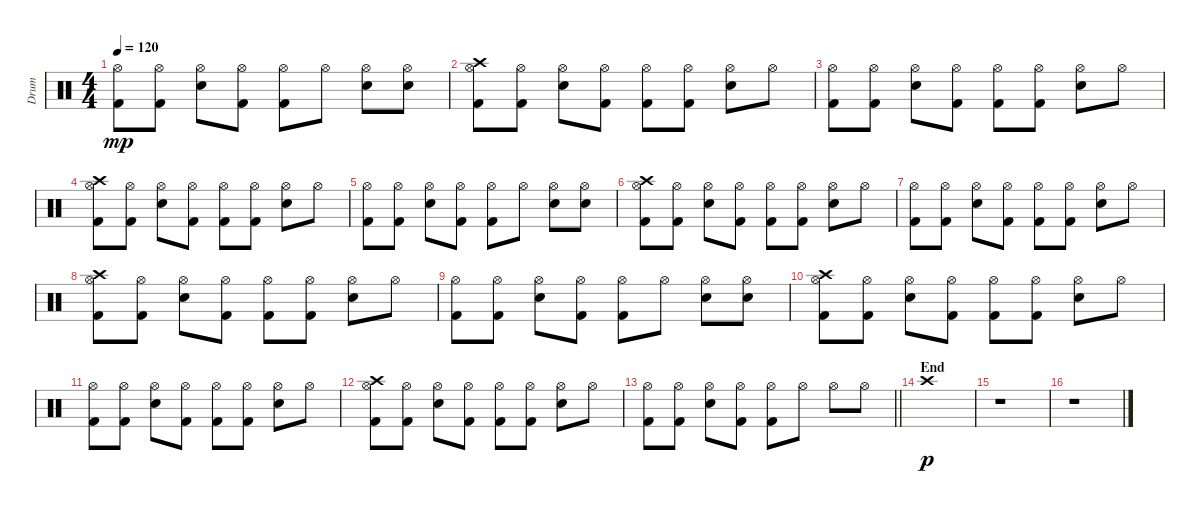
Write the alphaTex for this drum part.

\track ("Drum" "Drum") {instrument percussion}
\staff {score}
\articulation defaults
\ts (4 4)
\tempo 120
\clef neutral
\ks c
("Hi-Hat (open)" "Kick (hit) 2").8{dy mp} ("Hi-Hat (open)" "Kick (hit) 2").8 ("Hi-Hat (open)" "Snare (hit) 2").8 ("Hi-Hat (open)" "Kick (hit) 2").8 ("Hi-Hat (open)" "Kick (hit) 2").8 "Hi-Hat (open)".8 ("Hi-Hat (open)" "Snare (hit) 2").8 ("Hi-Hat (open)" "Snare (hit) 2").8 |
("Hi-Hat (open)" "Crash high (hit)" "Kick (hit) 2").8 ("Hi-Hat (open)" "Kick (hit) 2").8 ("Hi-Hat (open)" "Snare (hit) 2").8 ("Hi-Hat (open)" "Kick (hit) 2").8 ("Hi-Hat (open)" "Kick (hit) 2").8 ("Hi-Hat (open)" "Kick (hit) 2").8 ("Hi-Hat (open)" "Snare (hit) 2").8 "Hi-Hat (open)".8 |
("Hi-Hat (open)" "Kick (hit) 2").8 ("Hi-Hat (open)" "Kick (hit) 2").8 ("Hi-Hat (open)" "Snare (hit) 2").8 ("Hi-Hat (open)" "Kick (hit) 2").8 ("Hi-Hat (open)" "Kick (hit) 2").8 ("Hi-Hat (open)" "Kick (hit) 2").8 ("Hi-Hat (open)" "Snare (hit) 2").8 "Hi-Hat (open)".8 |
("Hi-Hat (open)" "Crash high (hit)" "Kick (hit) 2").8 ("Hi-Hat (open)" "Kick (hit) 2").8 ("Hi-Hat (open)" "Snare (hit) 2").8 ("Hi-Hat (open)" "Kick (hit) 2").8 ("Hi-Hat (open)" "Kick (hit) 2").8 ("Hi-Hat (open)" "Kick (hit) 2").8 ("Hi-Hat (open)" "Snare (hit) 2").8 "Hi-Hat (open)".8 |
("Hi-Hat (open)" "Kick (hit) 2").8 ("Hi-Hat (open)" "Kick (hit) 2").8 ("Hi-Hat (open)" "Snare (hit) 2").8 ("Hi-Hat (open)" "Kick (hit) 2").8 ("Hi-Hat (open)" "Kick (hit) 2").8 "Hi-Hat (open)".8 ("Hi-Hat (open)" "Snare (hit) 2").8 ("Hi-Hat (open)" "Snare (hit) 2").8 |
("Hi-Hat (open)" "Crash high (hit)" "Kick (hit) 2").8 ("Hi-Hat (open)" "Kick (hit) 2").8 ("Hi-Hat (open)" "Snare (hit) 2").8 ("Hi-Hat (open)" "Kick (hit) 2").8 ("Hi-Hat (open)" "Kick (hit) 2").8 ("Hi-Hat (open)" "Kick (hit) 2").8 ("Hi-Hat (open)" "Snare (hit) 2").8 "Hi-Hat (open)".8 |
("Hi-Hat (open)" "Kick (hit) 2").8 ("Hi-Hat (open)" "Kick (hit) 2").8 ("Hi-Hat (open)" "Snare (hit) 2").8 ("Hi-Hat (open)" "Kick (hit) 2").8 ("Hi-Hat (open)" "Kick (hit) 2").8 ("Hi-Hat (open)" "Kick (hit) 2").8 ("Hi-Hat (open)" "Snare (hit) 2").8 "Hi-Hat (open)".8 |
("Hi-Hat (open)" "Crash high (hit)" "Kick (hit) 2").8 ("Hi-Hat (open)" "Kick (hit) 2").8 ("Hi-Hat (open)" "Snare (hit) 2").8 ("Hi-Hat (open)" "Kick (hit) 2").8 ("Hi-Hat (open)" "Kick (hit) 2").8 ("Hi-Hat (open)" "Kick (hit) 2").8 ("Hi-Hat (open)" "Snare (hit) 2").8 "Hi-Hat (open)".8 |
("Hi-Hat (open)" "Kick (hit) 2").8 ("Hi-Hat (open)" "Kick (hit) 2").8 ("Hi-Hat (open)" "Snare (hit) 2").8 ("Hi-Hat (open)" "Kick (hit) 2").8 ("Hi-Hat (open)" "Kick (hit) 2").8 "Hi-Hat (open)".8 ("Hi-Hat (open)" "Snare (hit) 2").8 ("Hi-Hat (open)" "Snare (hit) 2").8 |
("Hi-Hat (open)" "Crash high (hit)" "Kick (hit) 2").8 ("Hi-Hat (open)" "Kick (hit) 2").8 ("Hi-Hat (open)" "Snare (hit) 2").8 ("Hi-Hat (open)" "Kick (hit) 2").8 ("Hi-Hat (open)" "Kick (hit) 2").8 ("Hi-Hat (open)" "Kick (hit) 2").8 ("Hi-Hat (open)" "Snare (hit) 2").8 "Hi-Hat (open)".8 |
("Hi-Hat (open)" "Kick (hit) 2").8 ("Hi-Hat (open)" "Kick (hit) 2").8 ("Hi-Hat (open)" "Snare (hit) 2").8 ("Hi-Hat (open)" "Kick (hit) 2").8 ("Hi-Hat (open)" "Kick (hit) 2").8 ("Hi-Hat (open)" "Kick (hit) 2").8 ("Hi-Hat (open)" "Snare (hit) 2").8 "Hi-Hat (open)".8 |
("Hi-Hat (open)" "Crash high (hit)" "Kick (hit) 2").8 ("Hi-Hat (open)" "Kick (hit) 2").8 ("Hi-Hat (open)" "Snare (hit) 2").8 ("Hi-Hat (open)" "Kick (hit) 2").8 ("Hi-Hat (open)" "Kick (hit) 2").8 ("Hi-Hat (open)" "Kick (hit) 2").8 ("Hi-Hat (open)" "Snare (hit) 2").8 "Hi-Hat (open)".8 |
\barLineRight lightlight
("Hi-Hat (open)" "Kick (hit) 2").8 ("Hi-Hat (open)" "Kick (hit) 2").8 ("Hi-Hat (open)" "Snare (hit) 2").8 ("Hi-Hat (open)" "Kick (hit) 2").8 ("Hi-Hat (open)" "Kick (hit) 2").8 "Hi-Hat (open)".8 "Hi-Hat (open)".8 "Hi-Hat (open)".8 |
\section ("" "End")
"Crash high (hit)".1{dy p} |
r.1 |
r.1
